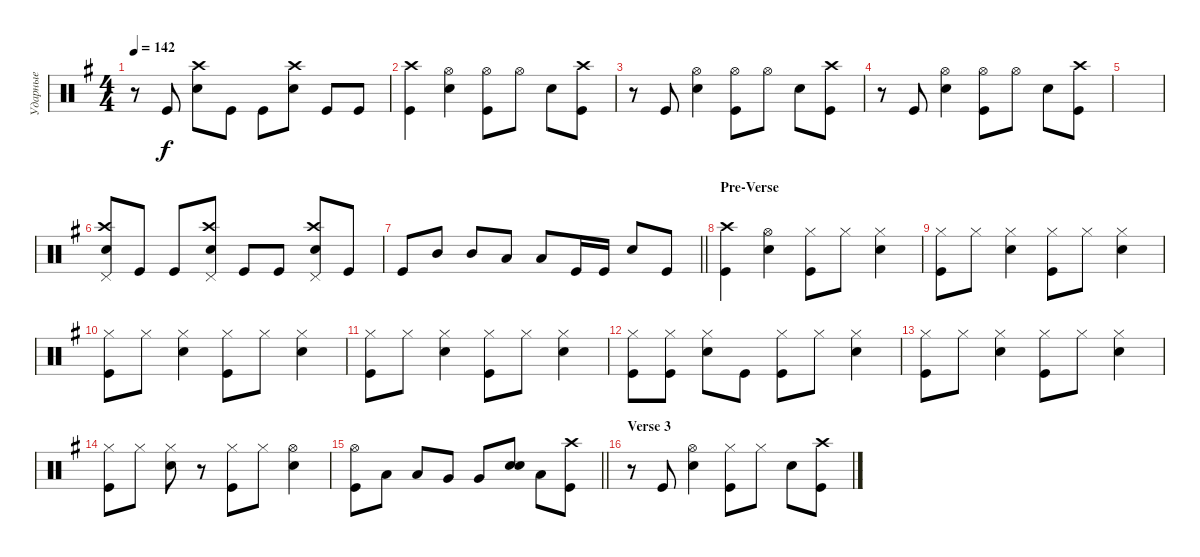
\track ("Ударные" "Ударные") {instrument percussion}
\staff {score}
\articulation defaults
\ts (4 4)
\tempo 142
\clef neutral
\ks eminor
r.8{dy f} "Kick (hit)".8 ("Snare (hit) 2" "Crash high (hit)").8 "Kick (hit)".8 "Kick (hit)".8 ("Snare (hit) 2" "Crash high (hit)").8 "Kick (hit)".8 "Kick (hit)".8 |
("Kick (hit)" "Crash high (hit)").4 ("Snare (hit) 2" "Hi-Hat (open)").4 ("Kick (hit)" "Hi-Hat (open)").8 "Hi-Hat (open)".8 "Snare (hit) 2".8 ("Kick (hit)" "Crash high (hit)").8 |
r.8 "Kick (hit)".8 ("Snare (hit) 2" "Hi-Hat (open)").4 ("Kick (hit)" "Hi-Hat (open)").8 "Hi-Hat (open)".8 "Snare (hit) 2".8 ("Kick (hit)" "Crash high (hit)").8 |
r.8 "Kick (hit)".8 ("Snare (hit) 2" "Hi-Hat (open)").4 ("Kick (hit)" "Hi-Hat (open)").8 "Hi-Hat (open)".8 "Snare (hit) 2".8 ("Kick (hit)" "Crash high (hit)").8 |
|
("Snare (hit) 2" "Crash high (hit)" "Pedal Hi-Hat (hit)").8 "Kick (hit)".8 "Kick (hit)".8 ("Snare (hit) 2" "Crash high (hit)" "Pedal Hi-Hat (hit)").8 "Kick (hit)".8 "Kick (hit)".8 ("Snare (hit) 2" "Crash high (hit)" "Pedal Hi-Hat (hit)").8 "Kick (hit)".8 |
\barLineRight lightlight "Kick (hit)".8 "Mid Tom (hit)".8 "Mid Tom (hit)".8 "Low Tom (hit)".8 "Low Tom (hit)".8 "Kick (hit)".16 "Kick (hit)".16 "Snare (hit) 2".8 "Kick (hit)".8
|
\section ("" "Pre-Verse")
("Kick (hit)" "Crash high (hit)").4 ("Snare (hit) 2" "Hi-Hat (open)").4 ("Kick (hit)" "Hi-Hat (closed)").8 "Hi-Hat (closed)".8 ("Snare (hit) 2" "Hi-Hat (closed)").4 |
("Hi-Hat (closed)" "Kick (hit)").8 "Hi-Hat (closed)".8 ("Snare (hit) 2" "Hi-Hat (closed)").4 ("Kick (hit)" "Hi-Hat (closed)").8 "Hi-Hat (closed)".8 ("Hi-Hat (closed)" "Snare (hit) 2").4 |
("Hi-Hat (closed)" "Kick (hit)").8 "Hi-Hat (closed)".8 ("Snare (hit) 2" "Hi-Hat (closed)").4 ("Kick (hit)" "Hi-Hat (closed)").8 "Hi-Hat (closed)".8 ("Hi-Hat (closed)" "Snare (hit) 2").4 |
("Hi-Hat (closed)" "Kick (hit)").8 "Hi-Hat (closed)".8 ("Snare (hit) 2" "Hi-Hat (closed)").4 ("Kick (hit)" "Hi-Hat (closed)").8 "Hi-Hat (closed)".8 ("Hi-Hat (closed)" "Snare (hit) 2").4 |
("Hi-Hat (closed)" "Kick (hit)").8 ("Hi-Hat (closed)" "Kick (hit)").8 ("Snare (hit) 2" "Hi-Hat (closed)").8 "Kick (hit)".8 ("Kick (hit)" "Hi-Hat (closed)").8 "Hi-Hat (closed)".8 ("Snare (hit) 2" "Hi-Hat (closed)").4 |
("Hi-Hat (closed)" "Kick (hit)").8 "Hi-Hat (closed)".8 ("Snare (hit) 2" "Hi-Hat (closed)").4 ("Kick (hit)" "Hi-Hat (closed)").8 "Hi-Hat (closed)".8 ("Hi-Hat (closed)" "Snare (hit) 2").4 |
("Hi-Hat (closed)" "Kick (hit)").8 "Hi-Hat (closed)".8 ("Snare (hit) 2" "Hi-Hat (closed)").8 r.8 ("Kick (hit)" "Hi-Hat (closed)").8 "Hi-Hat (closed)".8 ("Hi-Hat (open)" "Snare (hit) 2").4 |
\barLineRight lightlight
("Hi-Hat (open)" "Kick (hit)").8 "Low Tom (hit)".8 "Low Tom (hit)".8 "Very Low Tom (hit)".8 "Very Low Tom (hit)".8 ("Snare (hit) 2" "Snare (hit) 2").8{bd 240} "Low Tom (hit)".8 ("Kick (hit)" "Crash high (hit)").8 |
\section ("" "Verse 3")
r.8 "Kick (hit)".8 ("Snare (hit) 2" "Hi-Hat (open)").4 ("Kick (hit)" "Hi-Hat (closed)").8 "Hi-Hat (closed)".8 "Snare (hit) 2".8 ("Kick (hit)" "Crash high (hit)").8
